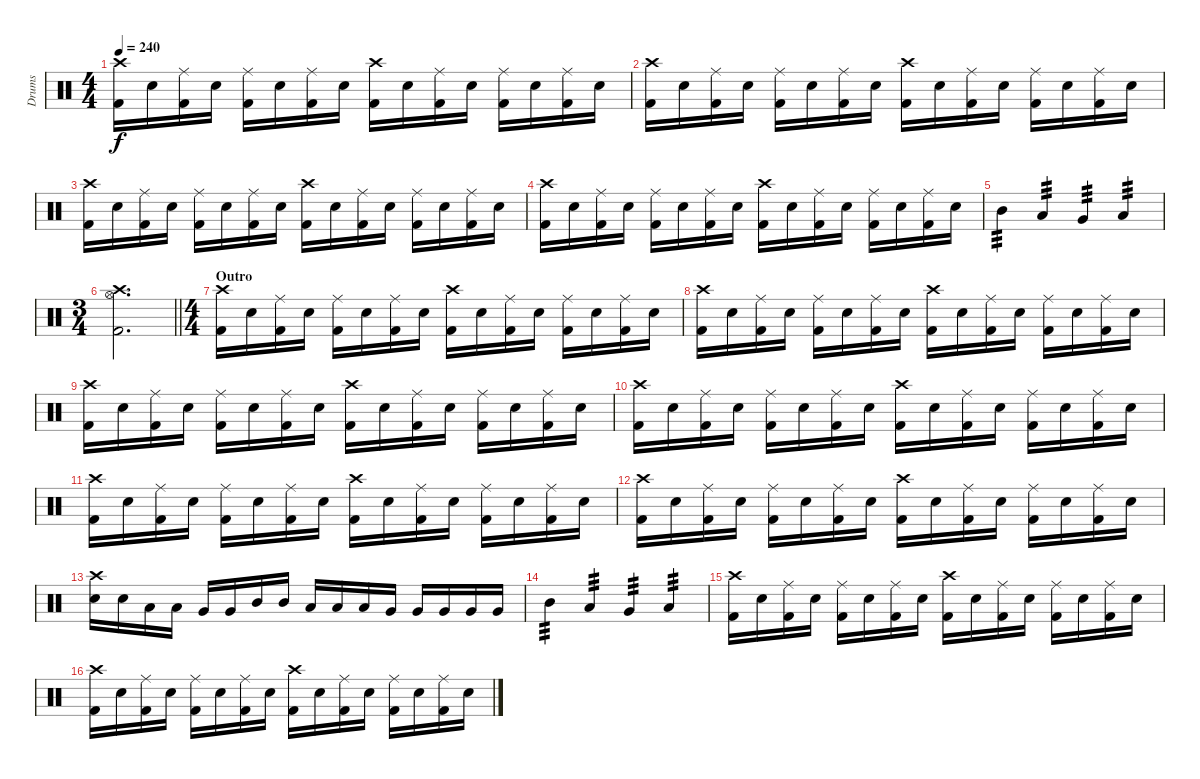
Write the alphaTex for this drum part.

\track ("Drums" "Drums") {instrument percussion}
\staff {score}
\articulation defaults
\ts (4 4)
\tempo 240
\clef neutral
\ks c
("Crash high (hit)" "Kick (hit) 2").16{dy f} "Electric Snare (hit)".16 ("Ride (middle)" "Kick (hit) 2").16 "Electric Snare (hit)".16 ("Ride (middle)" "Kick (hit) 2").16 "Electric Snare (hit)".16 ("Ride (middle)" "Kick (hit) 2").16 "Electric Snare (hit)".16 ("Crash high (hit)" "Kick (hit) 2").16 "Electric Snare (hit)".16 ("Ride (middle)" "Kick (hit) 2").16 "Electric Snare (hit)".16 ("Ride (middle)" "Kick (hit) 2").16 "Electric Snare (hit)".16 ("Ride (middle)" "Kick (hit) 2").16 "Electric Snare (hit)".16 |
("Crash high (hit)" "Kick (hit) 2").16 "Electric Snare (hit)".16 ("Ride (middle)" "Kick (hit) 2").16 "Electric Snare (hit)".16 ("Ride (middle)" "Kick (hit) 2").16 "Electric Snare (hit)".16 ("Ride (middle)" "Kick (hit) 2").16 "Electric Snare (hit)".16 ("Crash high (hit)" "Kick (hit) 2").16 "Electric Snare (hit)".16 ("Ride (middle)" "Kick (hit) 2").16 "Electric Snare (hit)".16 ("Ride (middle)" "Kick (hit) 2").16 "Electric Snare (hit)".16 ("Ride (middle)" "Kick (hit) 2").16 "Electric Snare (hit)".16 |
("Crash high (hit)" "Kick (hit) 2").16 "Electric Snare (hit)".16 ("Ride (middle)" "Kick (hit) 2").16 "Electric Snare (hit)".16 ("Ride (middle)" "Kick (hit) 2").16 "Electric Snare (hit)".16 ("Ride (middle)" "Kick (hit) 2").16 "Electric Snare (hit)".16 ("Crash high (hit)" "Kick (hit) 2").16 "Electric Snare (hit)".16 ("Ride (middle)" "Kick (hit) 2").16 "Electric Snare (hit)".16 ("Ride (middle)" "Kick (hit) 2").16 "Electric Snare (hit)".16 ("Ride (middle)" "Kick (hit) 2").16 "Electric Snare (hit)".16 |
("Crash high (hit)" "Kick (hit) 2").16 "Electric Snare (hit)".16 ("Ride (middle)" "Kick (hit) 2").16 "Electric Snare (hit)".16 ("Ride (middle)" "Kick (hit) 2").16 "Electric Snare (hit)".16 ("Ride (middle)" "Kick (hit) 2").16 "Electric Snare (hit)".16 ("Crash high (hit)" "Kick (hit) 2").16 "Electric Snare (hit)".16 ("Ride (middle)" "Kick (hit) 2").16 "Electric Snare (hit)".16 ("Ride (middle)" "Kick (hit) 2").16 "Electric Snare (hit)".16 ("Ride (middle)" "Kick (hit) 2").16 "Electric Snare (hit)".16 |
"Mid Tom (hit)".4{tp 3} "Low Tom (hit)".4{tp 3} "Very Low Tom (hit)".4{tp 3} "Low Floor Tom (hit)".4{tp 3} |
\ts (3 4)
\barLineRight lightlight
("Crash high (hit)" "Hi-Hat (open)" "Kick (hit) 2").2{d} |
\ts (4 4)
\section ("" "Outro")
("Crash high (hit)" "Kick (hit) 2").16 "Electric Snare (hit)".16 ("Ride (middle)" "Kick (hit) 2").16 "Electric Snare (hit)".16 ("Ride (middle)" "Kick (hit) 2").16 "Electric Snare (hit)".16 ("Ride (middle)" "Kick (hit) 2").16 "Electric Snare (hit)".16 ("Crash high (hit)" "Kick (hit) 2").16 "Electric Snare (hit)".16 ("Ride (middle)" "Kick (hit) 2").16 "Electric Snare (hit)".16 ("Ride (middle)" "Kick (hit) 2").16 "Electric Snare (hit)".16 ("Ride (middle)" "Kick (hit) 2").16 "Electric Snare (hit)".16 |
("Crash high (hit)" "Kick (hit) 2").16 "Electric Snare (hit)".16 ("Ride (middle)" "Kick (hit) 2").16 "Electric Snare (hit)".16 ("Ride (middle)" "Kick (hit) 2").16 "Electric Snare (hit)".16 ("Ride (middle)" "Kick (hit) 2").16 "Electric Snare (hit)".16 ("Crash high (hit)" "Kick (hit) 2").16 "Electric Snare (hit)".16 ("Ride (middle)" "Kick (hit) 2").16 "Electric Snare (hit)".16 ("Ride (middle)" "Kick (hit) 2").16 "Electric Snare (hit)".16 ("Ride (middle)" "Kick (hit) 2").16 "Electric Snare (hit)".16 |
("Crash high (hit)" "Kick (hit) 2").16 "Electric Snare (hit)".16 ("Ride (middle)" "Kick (hit) 2").16 "Electric Snare (hit)".16 ("Ride (middle)" "Kick (hit) 2").16 "Electric Snare (hit)".16 ("Ride (middle)" "Kick (hit) 2").16 "Electric Snare (hit)".16 ("Crash high (hit)" "Kick (hit) 2").16 "Electric Snare (hit)".16 ("Ride (middle)" "Kick (hit) 2").16 "Electric Snare (hit)".16 ("Ride (middle)" "Kick (hit) 2").16 "Electric Snare (hit)".16 ("Ride (middle)" "Kick (hit) 2").16 "Electric Snare (hit)".16 |
("Crash high (hit)" "Kick (hit) 2").16 "Electric Snare (hit)".16 ("Ride (middle)" "Kick (hit) 2").16 "Electric Snare (hit)".16 ("Ride (middle)" "Kick (hit) 2").16 "Electric Snare (hit)".16 ("Ride (middle)" "Kick (hit) 2").16 "Electric Snare (hit)".16 ("Crash high (hit)" "Kick (hit) 2").16 "Electric Snare (hit)".16 ("Ride (middle)" "Kick (hit) 2").16 "Electric Snare (hit)".16 ("Ride (middle)" "Kick (hit) 2").16 "Electric Snare (hit)".16 ("Ride (middle)" "Kick (hit) 2").16 "Electric Snare (hit)".16 |
("Crash high (hit)" "Kick (hit) 2").16 "Electric Snare (hit)".16 ("Ride (middle)" "Kick (hit) 2").16 "Electric Snare (hit)".16 ("Ride (middle)" "Kick (hit) 2").16 "Electric Snare (hit)".16 ("Ride (middle)" "Kick (hit) 2").16 "Electric Snare (hit)".16 ("Crash high (hit)" "Kick (hit) 2").16 "Electric Snare (hit)".16 ("Ride (middle)" "Kick (hit) 2").16 "Electric Snare (hit)".16 ("Ride (middle)" "Kick (hit) 2").16 "Electric Snare (hit)".16 ("Ride (middle)" "Kick (hit) 2").16 "Electric Snare (hit)".16 |
("Crash high (hit)" "Kick (hit) 2").16 "Electric Snare (hit)".16 ("Ride (middle)" "Kick (hit) 2").16 "Electric Snare (hit)".16 ("Ride (middle)" "Kick (hit) 2").16 "Electric Snare (hit)".16 ("Ride (middle)" "Kick (hit) 2").16 "Electric Snare (hit)".16 ("Crash high (hit)" "Kick (hit) 2").16 "Electric Snare (hit)".16 ("Ride (middle)" "Kick (hit) 2").16 "Electric Snare (hit)".16 ("Ride (middle)" "Kick (hit) 2").16 "Electric Snare (hit)".16 ("Ride (middle)" "Kick (hit) 2").16 "Electric Snare (hit)".16 |
("Crash high (hit)" "Snare (hit) 2").16 "Snare (hit) 2".16 "Low Tom (hit)".16 "Low Tom (hit)".16 "Very Low Tom (hit)".16 "Very Low Tom (hit)".16 "Mid Tom (hit)".16 "Mid Tom (hit)".16 "Low Tom (hit)".16 "Low Tom (hit)".16 "Low Tom (hit)".16 "Very Low Tom (hit)".16 "Very Low Tom (hit)".16 "Very Low Tom (hit)".16 "Very Low Tom (hit)".16 "Very Low Tom (hit)".16 |
"Mid Tom (hit)".4{tp 3} "Low Tom (hit)".4{tp 3} "Very Low Tom (hit)".4{tp 3} "Low Floor Tom (hit)".4{tp 3} |
("Crash high (hit)" "Kick (hit) 2").16 "Electric Snare (hit)".16 ("Ride (middle)" "Kick (hit) 2").16 "Electric Snare (hit)".16 ("Ride (middle)" "Kick (hit) 2").16 "Electric Snare (hit)".16 ("Ride (middle)" "Kick (hit) 2").16 "Electric Snare (hit)".16 ("Crash high (hit)" "Kick (hit) 2").16 "Electric Snare (hit)".16 ("Ride (middle)" "Kick (hit) 2").16 "Electric Snare (hit)".16 ("Ride (middle)" "Kick (hit) 2").16 "Electric Snare (hit)".16 ("Ride (middle)" "Kick (hit) 2").16 "Electric Snare (hit)".16 |
("Crash high (hit)" "Kick (hit) 2").16 "Electric Snare (hit)".16 ("Ride (middle)" "Kick (hit) 2").16 "Electric Snare (hit)".16 ("Ride (middle)" "Kick (hit) 2").16 "Electric Snare (hit)".16 ("Ride (middle)" "Kick (hit) 2").16 "Electric Snare (hit)".16 ("Crash high (hit)" "Kick (hit) 2").16 "Electric Snare (hit)".16 ("Ride (middle)" "Kick (hit) 2").16 "Electric Snare (hit)".16 ("Ride (middle)" "Kick (hit) 2").16 "Electric Snare (hit)".16 ("Ride (middle)" "Kick (hit) 2").16 "Electric Snare (hit)".16
